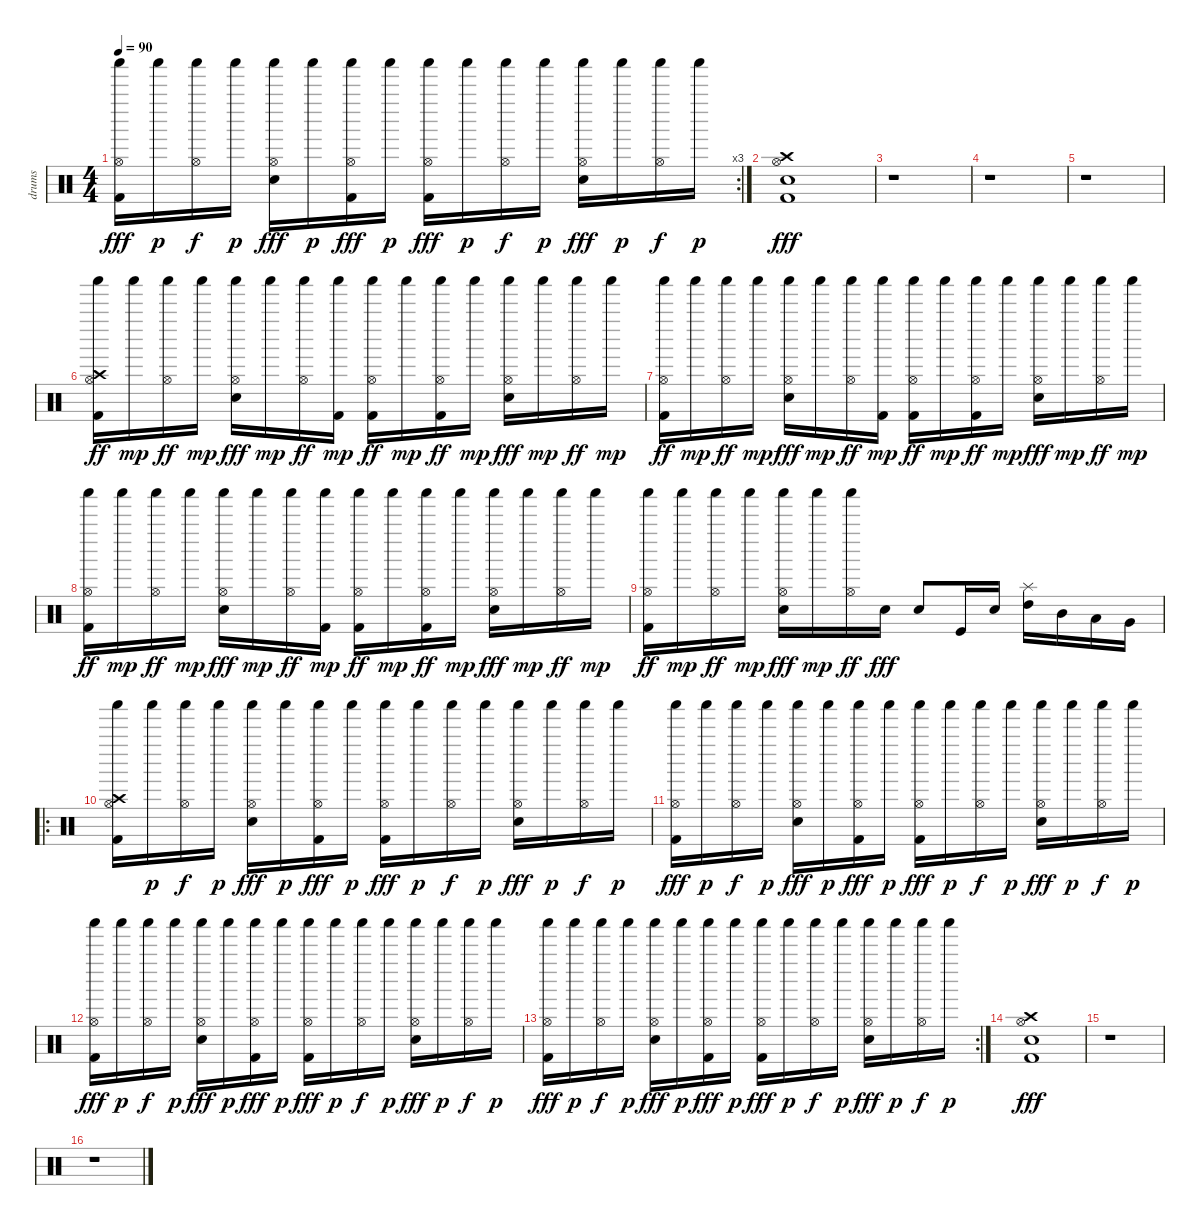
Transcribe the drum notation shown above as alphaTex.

\track ("drums" "drums") {instrument percussion}
\staff {score}
\articulation defaults
\rc 3
\ts (4 4)
\tempo 90
\clef neutral
\ks c
("Kick (hit) 2" "Shaker (hit)" "Hi-Hat (open)").16{dy fff} "Shaker (hit)".16{dy p} ("Shaker (hit)" "Hi-Hat (open)").16{dy f} "Shaker (hit)".16{dy p} ("Shaker (hit)" "Hi-Hat (open)" "Snare (hit) 2").16{dy fff} "Shaker (hit)".16{dy p} ("Kick (hit) 2" "Shaker (hit)" "Hi-Hat (open)").16{dy fff} "Shaker (hit)".16{dy p} ("Kick (hit) 2" "Shaker (hit)" "Hi-Hat (open)").16{dy fff} "Shaker (hit)".16{dy p} ("Shaker (hit)" "Hi-Hat (open)").16{dy f} "Shaker (hit)".16{dy p} ("Shaker (hit)" "Hi-Hat (open)" "Snare (hit) 2").16{dy fff} "Shaker (hit)".16{dy p} ("Shaker (hit)" "Hi-Hat (open)").16{dy f} "Shaker (hit)".16{dy p} |
("Kick (hit) 2" "Crash high (hit)" "Hi-Hat (open)" "Snare (hit) 2").1{dy fff} |
r.1 |
r.1 |
r.1 |
("Kick (hit) 2" "Crash high (hit)" "Shaker (hit)" "Hi-Hat (open)").16{dy ff} "Shaker (hit)".16{dy mp} ("Shaker (hit)" "Hi-Hat (open)").16{dy ff} "Shaker (hit)".16{dy mp} ("Shaker (hit)" "Hi-Hat (open)" "Snare (hit) 2").16{dy fff} "Shaker (hit)".16{dy mp} ("Shaker (hit)" "Hi-Hat (open)").16{dy ff} ("Kick (hit) 2" "Shaker (hit)").16{dy mp} ("Kick (hit) 2" "Shaker (hit)" "Hi-Hat (open)").16{dy ff} "Shaker (hit)".16{dy mp} ("Kick (hit) 2" "Shaker (hit)" "Hi-Hat (open)").16{dy ff} "Shaker (hit)".16{dy mp} ("Shaker (hit)" "Hi-Hat (open)" "Snare (hit) 2").16{dy fff} "Shaker (hit)".16{dy mp} ("Shaker (hit)" "Hi-Hat (open)").16{dy ff} "Shaker (hit)".16{dy mp} |
("Kick (hit) 2" "Shaker (hit)" "Hi-Hat (open)").16{dy ff} "Shaker (hit)".16{dy mp} ("Shaker (hit)" "Hi-Hat (open)").16{dy ff} "Shaker (hit)".16{dy mp} ("Shaker (hit)" "Hi-Hat (open)" "Snare (hit) 2").16{dy fff} "Shaker (hit)".16{dy mp} ("Shaker (hit)" "Hi-Hat (open)").16{dy ff} ("Kick (hit) 2" "Shaker (hit)").16{dy mp} ("Kick (hit) 2" "Shaker (hit)" "Hi-Hat (open)").16{dy ff} "Shaker (hit)".16{dy mp} ("Kick (hit) 2" "Shaker (hit)" "Hi-Hat (open)").16{dy ff} "Shaker (hit)".16{dy mp} ("Shaker (hit)" "Hi-Hat (open)" "Snare (hit) 2").16{dy fff} "Shaker (hit)".16{dy mp} ("Shaker (hit)" "Hi-Hat (open)").16{dy ff} "Shaker (hit)".16{dy mp} |
("Kick (hit) 2" "Shaker (hit)" "Hi-Hat (open)").16{dy ff} "Shaker (hit)".16{dy mp} ("Shaker (hit)" "Hi-Hat (open)").16{dy ff} "Shaker (hit)".16{dy mp} ("Shaker (hit)" "Hi-Hat (open)" "Snare (hit) 2").16{dy fff} "Shaker (hit)".16{dy mp} ("Shaker (hit)" "Hi-Hat (open)").16{dy ff} ("Kick (hit) 2" "Shaker (hit)").16{dy mp} ("Kick (hit) 2" "Shaker (hit)" "Hi-Hat (open)").16{dy ff} "Shaker (hit)".16{dy mp} ("Kick (hit) 2" "Shaker (hit)" "Hi-Hat (open)").16{dy ff} "Shaker (hit)".16{dy mp} ("Shaker (hit)" "Hi-Hat (open)" "Snare (hit) 2").16{dy fff} "Shaker (hit)".16{dy mp} ("Shaker (hit)" "Hi-Hat (open)").16{dy ff} "Shaker (hit)".16{dy mp} |
("Kick (hit) 2" "Shaker (hit)" "Hi-Hat (open)").16{dy ff} "Shaker (hit)".16{dy mp} ("Shaker (hit)" "Hi-Hat (open)").16{dy ff} "Shaker (hit)".16{dy mp} ("Shaker (hit)" "Hi-Hat (open)" "Snare (hit) 2").16{dy fff} "Shaker (hit)".16{dy mp} ("Shaker (hit)" "Hi-Hat (open)").16{dy ff} "Electric Snare (hit)".16{dy fff} "Electric Snare (hit)".8 "Kick (hit)".16 "Electric Snare (hit)".16 ("Splash (hit)" "High Tom (hit)").16 "Mid Tom (hit)".16 "Low Tom (hit)".16 "Very Low Tom (hit)".16 |
\ro
("Kick (hit) 2" "Crash high (hit)" "Shaker (hit)" "Hi-Hat (open)").16 "Shaker (hit)".16{dy p} ("Shaker (hit)" "Hi-Hat (open)").16{dy f} "Shaker (hit)".16{dy p} ("Shaker (hit)" "Hi-Hat (open)" "Snare (hit) 2").16{dy fff} "Shaker (hit)".16{dy p} ("Kick (hit) 2" "Shaker (hit)" "Hi-Hat (open)").16{dy fff} "Shaker (hit)".16{dy p} ("Kick (hit) 2" "Shaker (hit)" "Hi-Hat (open)").16{dy fff} "Shaker (hit)".16{dy p} ("Shaker (hit)" "Hi-Hat (open)").16{dy f} "Shaker (hit)".16{dy p} ("Shaker (hit)" "Hi-Hat (open)" "Snare (hit) 2").16{dy fff} "Shaker (hit)".16{dy p} ("Shaker (hit)" "Hi-Hat (open)").16{dy f} "Shaker (hit)".16{dy p} |
("Kick (hit) 2" "Shaker (hit)" "Hi-Hat (open)").16{dy fff} "Shaker (hit)".16{dy p} ("Shaker (hit)" "Hi-Hat (open)").16{dy f} "Shaker (hit)".16{dy p} ("Shaker (hit)" "Hi-Hat (open)" "Snare (hit) 2").16{dy fff} "Shaker (hit)".16{dy p} ("Kick (hit) 2" "Shaker (hit)" "Hi-Hat (open)").16{dy fff} "Shaker (hit)".16{dy p} ("Kick (hit) 2" "Shaker (hit)" "Hi-Hat (open)").16{dy fff} "Shaker (hit)".16{dy p} ("Shaker (hit)" "Hi-Hat (open)").16{dy f} "Shaker (hit)".16{dy p} ("Shaker (hit)" "Hi-Hat (open)" "Snare (hit) 2").16{dy fff} "Shaker (hit)".16{dy p} ("Shaker (hit)" "Hi-Hat (open)").16{dy f} "Shaker (hit)".16{dy p} |
("Kick (hit) 2" "Shaker (hit)" "Hi-Hat (open)").16{dy fff} "Shaker (hit)".16{dy p} ("Shaker (hit)" "Hi-Hat (open)").16{dy f} "Shaker (hit)".16{dy p} ("Shaker (hit)" "Hi-Hat (open)" "Snare (hit) 2").16{dy fff} "Shaker (hit)".16{dy p} ("Kick (hit) 2" "Shaker (hit)" "Hi-Hat (open)").16{dy fff} "Shaker (hit)".16{dy p} ("Kick (hit) 2" "Shaker (hit)" "Hi-Hat (open)").16{dy fff} "Shaker (hit)".16{dy p} ("Shaker (hit)" "Hi-Hat (open)").16{dy f} "Shaker (hit)".16{dy p} ("Shaker (hit)" "Hi-Hat (open)" "Snare (hit) 2").16{dy fff} "Shaker (hit)".16{dy p} ("Shaker (hit)" "Hi-Hat (open)").16{dy f} "Shaker (hit)".16{dy p} |
\rc 2
("Kick (hit) 2" "Shaker (hit)" "Hi-Hat (open)").16{dy fff} "Shaker (hit)".16{dy p} ("Shaker (hit)" "Hi-Hat (open)").16{dy f} "Shaker (hit)".16{dy p} ("Shaker (hit)" "Hi-Hat (open)" "Snare (hit) 2").16{dy fff} "Shaker (hit)".16{dy p} ("Kick (hit) 2" "Shaker (hit)" "Hi-Hat (open)").16{dy fff} "Shaker (hit)".16{dy p} ("Kick (hit) 2" "Shaker (hit)" "Hi-Hat (open)").16{dy fff} "Shaker (hit)".16{dy p} ("Shaker (hit)" "Hi-Hat (open)").16{dy f} "Shaker (hit)".16{dy p} ("Shaker (hit)" "Hi-Hat (open)" "Snare (hit) 2").16{dy fff} "Shaker (hit)".16{dy p} ("Shaker (hit)" "Hi-Hat (open)").16{dy f} "Shaker (hit)".16{dy p} |
("Kick (hit) 2" "Crash high (hit)" "Hi-Hat (open)" "Snare (hit) 2").1{dy fff} |
r.1 |
r.1
